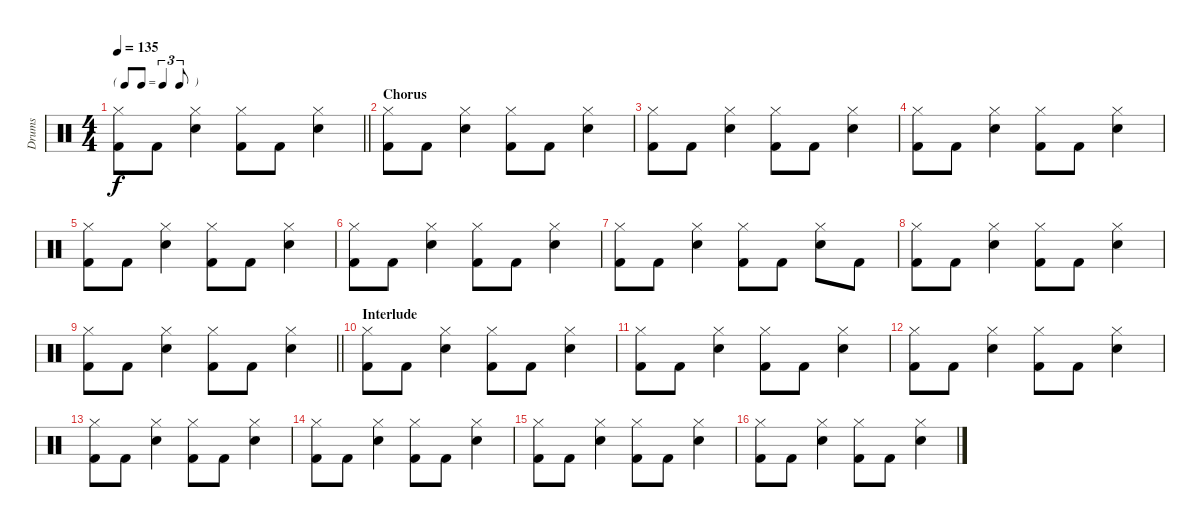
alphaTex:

\track ("Drums" "Drums") {instrument percussion}
\staff {score}
\articulation defaults
\ts (4 4)
\tf triplet8th
\tempo 135
\clef neutral
\barLineRight lightlight
\ks c
("Hi-Hat (closed)" "Kick (hit) 2").8{dy f} "Kick (hit) 2".8 ("Hi-Hat (closed)" "Snare (hit) 2").4 ("Hi-Hat (closed)" "Kick (hit) 2").8 "Kick (hit) 2".8 ("Hi-Hat (closed)" "Snare (hit) 2").4 |
\section ("" "Chorus")
("Hi-Hat (closed)" "Kick (hit) 2").8 "Kick (hit) 2".8 ("Hi-Hat (closed)" "Snare (hit) 2").4 ("Hi-Hat (closed)" "Kick (hit) 2").8 "Kick (hit) 2".8 ("Hi-Hat (closed)" "Snare (hit) 2").4 |
("Hi-Hat (closed)" "Kick (hit) 2").8 "Kick (hit) 2".8 ("Hi-Hat (closed)" "Snare (hit) 2").4 ("Hi-Hat (closed)" "Kick (hit) 2").8 "Kick (hit) 2".8 ("Hi-Hat (closed)" "Snare (hit) 2").4 |
("Hi-Hat (closed)" "Kick (hit) 2").8 "Kick (hit) 2".8 ("Hi-Hat (closed)" "Snare (hit) 2").4 ("Hi-Hat (closed)" "Kick (hit) 2").8 "Kick (hit) 2".8 ("Hi-Hat (closed)" "Snare (hit) 2").4 |
("Hi-Hat (closed)" "Kick (hit) 2").8 "Kick (hit) 2".8 ("Hi-Hat (closed)" "Snare (hit) 2").4 ("Hi-Hat (closed)" "Kick (hit) 2").8 "Kick (hit) 2".8 ("Hi-Hat (closed)" "Snare (hit) 2").4 |
("Hi-Hat (closed)" "Kick (hit) 2").8 "Kick (hit) 2".8 ("Hi-Hat (closed)" "Snare (hit) 2").4 ("Hi-Hat (closed)" "Kick (hit) 2").8 "Kick (hit) 2".8 ("Hi-Hat (closed)" "Snare (hit) 2").4 |
("Hi-Hat (closed)" "Kick (hit) 2").8 "Kick (hit) 2".8 ("Hi-Hat (closed)" "Snare (hit) 2").4 ("Hi-Hat (closed)" "Kick (hit) 2").8 "Kick (hit) 2".8 ("Hi-Hat (closed)" "Snare (hit) 2").8 "Kick (hit) 2".8 |
("Hi-Hat (closed)" "Kick (hit) 2").8 "Kick (hit) 2".8 ("Hi-Hat (closed)" "Snare (hit) 2").4 ("Hi-Hat (closed)" "Kick (hit) 2").8 "Kick (hit) 2".8 ("Hi-Hat (closed)" "Snare (hit) 2").4 |
\barLineRight lightlight
("Hi-Hat (closed)" "Kick (hit) 2").8 "Kick (hit) 2".8 ("Hi-Hat (closed)" "Snare (hit) 2").4 ("Hi-Hat (closed)" "Kick (hit) 2").8 "Kick (hit) 2".8 ("Hi-Hat (closed)" "Snare (hit) 2").4 |
\section ("" "Interlude")
("Hi-Hat (closed)" "Kick (hit) 2").8 "Kick (hit) 2".8 ("Hi-Hat (closed)" "Snare (hit) 2").4 ("Hi-Hat (closed)" "Kick (hit) 2").8 "Kick (hit) 2".8 ("Hi-Hat (closed)" "Snare (hit) 2").4 |
("Hi-Hat (closed)" "Kick (hit) 2").8 "Kick (hit) 2".8 ("Hi-Hat (closed)" "Snare (hit) 2").4 ("Hi-Hat (closed)" "Kick (hit) 2").8 "Kick (hit) 2".8 ("Hi-Hat (closed)" "Snare (hit) 2").4 |
("Hi-Hat (closed)" "Kick (hit) 2").8 "Kick (hit) 2".8 ("Hi-Hat (closed)" "Snare (hit) 2").4 ("Hi-Hat (closed)" "Kick (hit) 2").8 "Kick (hit) 2".8 ("Hi-Hat (closed)" "Snare (hit) 2").4 |
("Hi-Hat (closed)" "Kick (hit) 2").8 "Kick (hit) 2".8 ("Hi-Hat (closed)" "Snare (hit) 2").4 ("Hi-Hat (closed)" "Kick (hit) 2").8 "Kick (hit) 2".8 ("Hi-Hat (closed)" "Snare (hit) 2").4 |
("Hi-Hat (closed)" "Kick (hit) 2").8 "Kick (hit) 2".8 ("Hi-Hat (closed)" "Snare (hit) 2").4 ("Hi-Hat (closed)" "Kick (hit) 2").8 "Kick (hit) 2".8 ("Hi-Hat (closed)" "Snare (hit) 2").4 |
("Hi-Hat (closed)" "Kick (hit) 2").8 "Kick (hit) 2".8 ("Hi-Hat (closed)" "Snare (hit) 2").4 ("Hi-Hat (closed)" "Kick (hit) 2").8 "Kick (hit) 2".8 ("Hi-Hat (closed)" "Snare (hit) 2").4 |
("Hi-Hat (closed)" "Kick (hit) 2").8 "Kick (hit) 2".8 ("Hi-Hat (closed)" "Snare (hit) 2").4 ("Hi-Hat (closed)" "Kick (hit) 2").8 "Kick (hit) 2".8 ("Hi-Hat (closed)" "Snare (hit) 2").4
